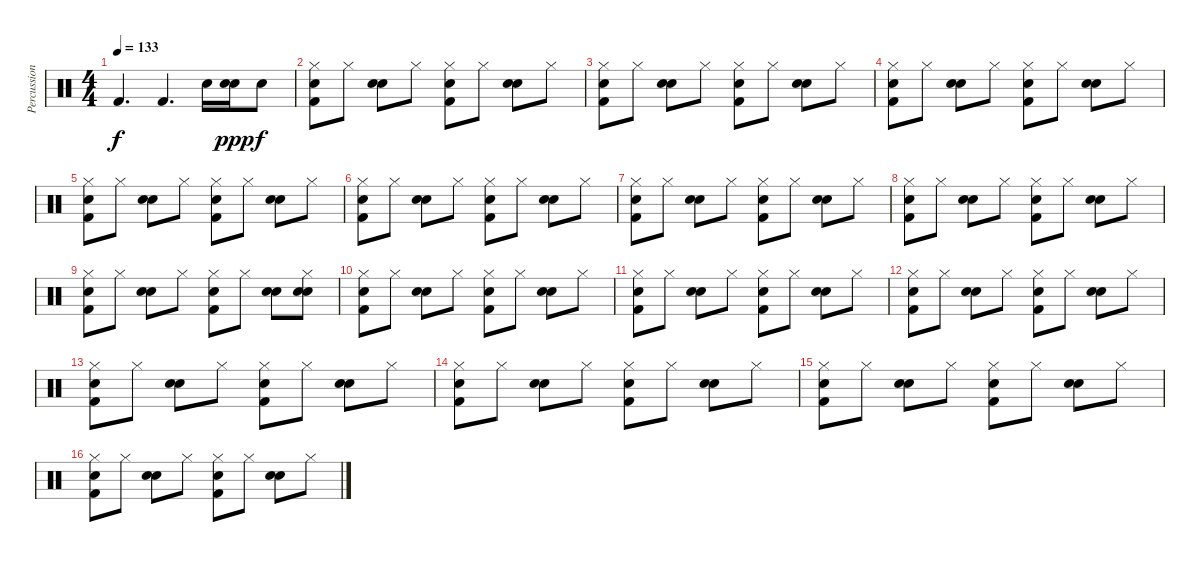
\track ("Percussions" "Percussion") {instrument percussion}
\staff {score}
\articulation defaults
\ts (4 4)
\tempo 133
\clef neutral
\ks c "Kick (hit) 2".4{d dy f} "Kick (hit) 2".4{d} "Electric Snare (hit)".16
("Snare (hit) 2" "Electric Snare (hit)").16{dy ppp} "Electric Snare (hit)".8{dy f} |
("Snare (hit) 2" "Kick (hit) 2" "Hi-Hat (closed)").8 "Hi-Hat (closed)".8 ("Electric Snare (hit)" "Electric Snare (hit)").8 "Hi-Hat (closed)".8 ("Snare (hit) 2" "Kick (hit) 2" "Hi-Hat (closed)").8 "Hi-Hat (closed)".8 ("Electric Snare (hit)" "Electric Snare (hit)").8 "Hi-Hat (closed)".8 |
("Snare (hit) 2" "Kick (hit) 2" "Hi-Hat (closed)").8 "Hi-Hat (closed)".8 ("Electric Snare (hit)" "Electric Snare (hit)").8 "Hi-Hat (closed)".8 ("Snare (hit) 2" "Kick (hit) 2" "Hi-Hat (closed)").8 "Hi-Hat (closed)".8 ("Electric Snare (hit)" "Electric Snare (hit)").8 "Hi-Hat (closed)".8 |
("Snare (hit) 2" "Kick (hit) 2" "Hi-Hat (closed)").8 "Hi-Hat (closed)".8 ("Electric Snare (hit)" "Electric Snare (hit)").8 "Hi-Hat (closed)".8 ("Snare (hit) 2" "Kick (hit) 2" "Hi-Hat (closed)").8 "Hi-Hat (closed)".8 ("Electric Snare (hit)" "Electric Snare (hit)").8 "Hi-Hat (closed)".8 |
("Snare (hit) 2" "Kick (hit) 2" "Hi-Hat (closed)").8 "Hi-Hat (closed)".8 ("Electric Snare (hit)" "Electric Snare (hit)").8 "Hi-Hat (closed)".8 ("Snare (hit) 2" "Kick (hit) 2" "Hi-Hat (closed)").8 "Hi-Hat (closed)".8 ("Electric Snare (hit)" "Electric Snare (hit)").8 "Hi-Hat (closed)".8 |
("Snare (hit) 2" "Kick (hit) 2" "Hi-Hat (closed)").8 "Hi-Hat (closed)".8 ("Electric Snare (hit)" "Electric Snare (hit)").8 "Hi-Hat (closed)".8 ("Snare (hit) 2" "Kick (hit) 2" "Hi-Hat (closed)").8 "Hi-Hat (closed)".8 ("Electric Snare (hit)" "Electric Snare (hit)").8 "Hi-Hat (closed)".8 |
("Snare (hit) 2" "Kick (hit) 2" "Hi-Hat (closed)").8 "Hi-Hat (closed)".8 ("Electric Snare (hit)" "Electric Snare (hit)").8 "Hi-Hat (closed)".8 ("Snare (hit) 2" "Kick (hit) 2" "Hi-Hat (closed)").8 "Hi-Hat (closed)".8 ("Electric Snare (hit)" "Electric Snare (hit)").8 "Hi-Hat (closed)".8 |
("Snare (hit) 2" "Kick (hit) 2" "Hi-Hat (closed)").8 "Hi-Hat (closed)".8 ("Electric Snare (hit)" "Electric Snare (hit)").8 "Hi-Hat (closed)".8 ("Snare (hit) 2" "Kick (hit) 2" "Hi-Hat (closed)").8 "Hi-Hat (closed)".8 ("Electric Snare (hit)" "Electric Snare (hit)").8 "Hi-Hat (closed)".8 |
("Snare (hit) 2" "Kick (hit) 2" "Hi-Hat (closed)").8 "Hi-Hat (closed)".8 ("Electric Snare (hit)" "Electric Snare (hit)").8 "Hi-Hat (closed)".8 ("Snare (hit) 2" "Kick (hit) 2" "Hi-Hat (closed)").8 "Hi-Hat (closed)".8 ("Electric Snare (hit)" "Electric Snare (hit)").8 ("Electric Snare (hit)" "Electric Snare (hit)" "Hi-Hat (closed)").8 |
("Snare (hit) 2" "Kick (hit) 2" "Hi-Hat (closed)").8 "Hi-Hat (closed)".8 ("Electric Snare (hit)" "Electric Snare (hit)").8 "Hi-Hat (closed)".8 ("Snare (hit) 2" "Kick (hit) 2" "Hi-Hat (closed)").8 "Hi-Hat (closed)".8 ("Electric Snare (hit)" "Electric Snare (hit)").8 "Hi-Hat (closed)".8 |
("Snare (hit) 2" "Kick (hit) 2" "Hi-Hat (closed)").8 "Hi-Hat (closed)".8 ("Electric Snare (hit)" "Electric Snare (hit)").8 "Hi-Hat (closed)".8 ("Snare (hit) 2" "Kick (hit) 2" "Hi-Hat (closed)").8 "Hi-Hat (closed)".8 ("Electric Snare (hit)" "Electric Snare (hit)").8 "Hi-Hat (closed)".8 |
("Snare (hit) 2" "Kick (hit) 2" "Hi-Hat (closed)").8 "Hi-Hat (closed)".8 ("Electric Snare (hit)" "Electric Snare (hit)").8 "Hi-Hat (closed)".8 ("Snare (hit) 2" "Kick (hit) 2" "Hi-Hat (closed)").8 "Hi-Hat (closed)".8 ("Electric Snare (hit)" "Electric Snare (hit)").8 "Hi-Hat (closed)".8 |
("Snare (hit) 2" "Kick (hit) 2" "Hi-Hat (closed)").8 "Hi-Hat (closed)".8 ("Electric Snare (hit)" "Electric Snare (hit)").8 "Hi-Hat (closed)".8 ("Snare (hit) 2" "Kick (hit) 2" "Hi-Hat (closed)").8 "Hi-Hat (closed)".8 ("Electric Snare (hit)" "Electric Snare (hit)").8 "Hi-Hat (closed)".8 |
("Snare (hit) 2" "Kick (hit) 2" "Hi-Hat (closed)").8 "Hi-Hat (closed)".8 ("Electric Snare (hit)" "Electric Snare (hit)").8 "Hi-Hat (closed)".8 ("Snare (hit) 2" "Kick (hit) 2" "Hi-Hat (closed)").8 "Hi-Hat (closed)".8 ("Electric Snare (hit)" "Electric Snare (hit)").8 "Hi-Hat (closed)".8 |
("Snare (hit) 2" "Kick (hit) 2" "Hi-Hat (closed)").8 "Hi-Hat (closed)".8 ("Electric Snare (hit)" "Electric Snare (hit)").8 "Hi-Hat (closed)".8 ("Snare (hit) 2" "Kick (hit) 2" "Hi-Hat (closed)").8 "Hi-Hat (closed)".8 ("Electric Snare (hit)" "Electric Snare (hit)").8 "Hi-Hat (closed)".8 |
("Snare (hit) 2" "Kick (hit) 2" "Hi-Hat (closed)").8 "Hi-Hat (closed)".8 ("Electric Snare (hit)" "Electric Snare (hit)").8 "Hi-Hat (closed)".8 ("Snare (hit) 2" "Kick (hit) 2" "Hi-Hat (closed)").8 "Hi-Hat (closed)".8 ("Electric Snare (hit)" "Electric Snare (hit)").8 "Hi-Hat (closed)".8
